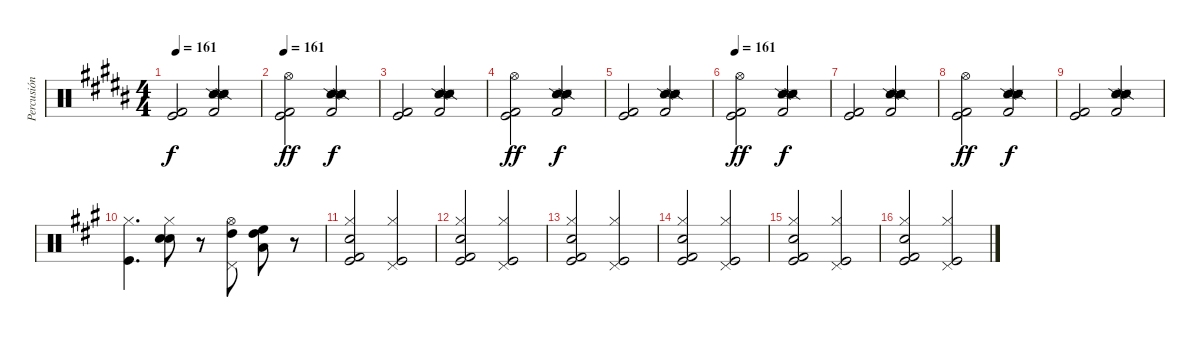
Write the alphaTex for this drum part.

\track ("Percusión" "Percusión") {instrument percussion}
\staff {score}
\articulation defaults
\ts (4 4)
\tempo 161
\clef neutral
\ks b
("Kick (hit) 2" "Kick (hit)").2{dy f} ("Snare (side stick) 2" "Metronome (hit)" "Kick (hit) 2" "Snare (side stick) 2").2 |
\tempo 161
("Kick (hit) 2" "Hi-Hat (open)" "Kick (hit)").2{dy ff volume 7 balance 3} ("Snare (side stick) 2" "Metronome (hit)" "Kick (hit) 2" "Snare (side stick) 2").2{dy f} |
("Kick (hit) 2" "Kick (hit)").2 ("Snare (side stick) 2" "Metronome (hit)" "Kick (hit) 2" "Snare (side stick) 2").2 |
("Kick (hit) 2" "Hi-Hat (open)" "Kick (hit)").2{dy ff} ("Snare (side stick) 2" "Metronome (hit)" "Kick (hit) 2" "Snare (side stick) 2").2{dy f} |
("Kick (hit) 2" "Kick (hit)").2 ("Snare (side stick) 2" "Metronome (hit)" "Kick (hit) 2" "Snare (side stick) 2").2 |
\tempo 161
("Kick (hit) 2" "Hi-Hat (open)" "Kick (hit)").2{dy ff volume 7 balance 3} ("Snare (side stick) 2" "Metronome (hit)" "Kick (hit) 2" "Snare (side stick) 2").2{dy f} |
("Kick (hit) 2" "Kick (hit)").2 ("Snare (side stick) 2" "Metronome (hit)" "Kick (hit) 2" "Snare (side stick) 2").2 |
("Kick (hit) 2" "Hi-Hat (open)" "Kick (hit)").2{dy ff} ("Snare (side stick) 2" "Metronome (hit)" "Kick (hit) 2" "Snare (side stick) 2").2{dy f} |
("Kick (hit) 2" "Kick (hit)").2 ("Snare (side stick) 2" "Metronome (hit)" "Kick (hit) 2" "Snare (side stick) 2").2 |
\ks a
("Hi-Hat (closed)" "Kick (hit)").4{d} ("Hi-Hat (closed)" "Electric Snare (hit)" "Snare (hit) 2").8 r.8 ("Hi-Hat (open)" "Pedal Hi-Hat (hit)" "High Tom (hit)").8 ("High Floor Tom (hit)" "High Tom (hit)" "Low Tom (hit)").8 r.8 |
("Hi-Hat (closed)" "Snare (hit) 2" "Kick (hit)" "Kick (hit) 2").2 ("Hi-Hat (closed)" "Pedal Hi-Hat (hit)" "Kick (hit)").2 |
("Hi-Hat (closed)" "Snare (hit) 2" "Kick (hit)" "Kick (hit) 2").2 ("Hi-Hat (closed)" "Pedal Hi-Hat (hit)" "Kick (hit)").2 |
("Hi-Hat (closed)" "Snare (hit) 2" "Kick (hit)" "Kick (hit) 2").2 ("Hi-Hat (closed)" "Pedal Hi-Hat (hit)" "Kick (hit)").2 |
("Hi-Hat (closed)" "Snare (hit) 2" "Kick (hit)" "Kick (hit) 2").2 ("Hi-Hat (closed)" "Pedal Hi-Hat (hit)" "Kick (hit)").2 |
("Hi-Hat (closed)" "Snare (hit) 2" "Kick (hit)" "Kick (hit) 2").2 ("Hi-Hat (closed)" "Pedal Hi-Hat (hit)" "Kick (hit)").2 |
("Hi-Hat (closed)" "Snare (hit) 2" "Kick (hit)" "Kick (hit) 2").2 ("Hi-Hat (closed)" "Pedal Hi-Hat (hit)" "Kick (hit)").2
